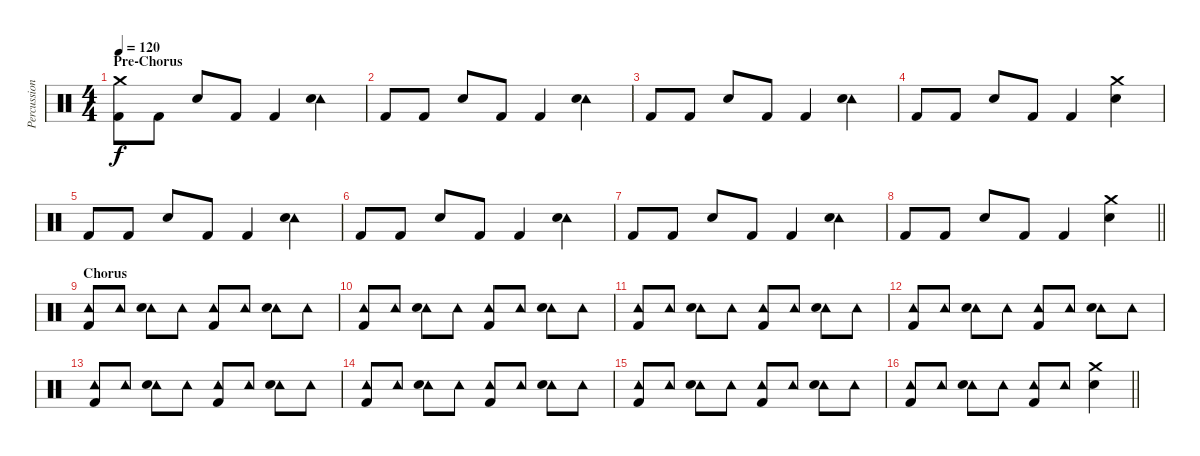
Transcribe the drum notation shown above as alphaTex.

\track ("Percussion" "Percussion") {instrument percussion}
\staff {score}
\articulation defaults
\ts (4 4)
\section ("" "Pre-Chorus")
\tempo 120
\clef neutral
\ks c
("Crash medium (hit)" "Kick (hit) 2").8{dy f} "Kick (hit) 2".8 "Snare (hit) 2".8 "Kick (hit) 2".8 "Kick (hit) 2".4 ("Tambourine (hit)" "Snare (hit) 2").4 |
"Kick (hit) 2".8 "Kick (hit) 2".8 "Snare (hit) 2".8 "Kick (hit) 2".8 "Kick (hit) 2".4 ("Tambourine (hit)" "Snare (hit) 2").4 |
"Kick (hit) 2".8 "Kick (hit) 2".8 "Snare (hit) 2".8 "Kick (hit) 2".8 "Kick (hit) 2".4 ("Tambourine (hit)" "Snare (hit) 2").4 |
"Kick (hit) 2".8 "Kick (hit) 2".8 "Snare (hit) 2".8 "Kick (hit) 2".8 "Kick (hit) 2".4 ("Crash medium (hit)" "Snare (hit) 2").4 |
"Kick (hit) 2".8 "Kick (hit) 2".8 "Snare (hit) 2".8 "Kick (hit) 2".8 "Kick (hit) 2".4 ("Tambourine (hit)" "Snare (hit) 2").4 |
"Kick (hit) 2".8 "Kick (hit) 2".8 "Snare (hit) 2".8 "Kick (hit) 2".8 "Kick (hit) 2".4 ("Tambourine (hit)" "Snare (hit) 2").4 |
"Kick (hit) 2".8 "Kick (hit) 2".8 "Snare (hit) 2".8 "Kick (hit) 2".8 "Kick (hit) 2".4 ("Tambourine (hit)" "Snare (hit) 2").4 |
\barLineRight lightlight "Kick (hit) 2".8 "Kick (hit) 2".8 "Snare (hit) 2".8 "Kick (hit) 2".8 "Kick (hit) 2".4
("Crash medium (hit)" "Snare (hit) 2").4 |
\section ("" "Chorus")
("Tambourine (hit)" "Kick (hit) 2").8 "Tambourine (hit)".8 ("Tambourine (hit)" "Snare (hit) 2").8 "Tambourine (hit)".8 ("Tambourine (hit)" "Kick (hit) 2").8 "Tambourine (hit)".8 ("Tambourine (hit)" "Snare (hit) 2").8 "Tambourine (hit)".8 |
("Tambourine (hit)" "Kick (hit) 2").8 "Tambourine (hit)".8 ("Tambourine (hit)" "Snare (hit) 2").8 "Tambourine (hit)".8 ("Tambourine (hit)" "Kick (hit) 2").8 "Tambourine (hit)".8 ("Tambourine (hit)" "Snare (hit) 2").8 "Tambourine (hit)".8 |
("Tambourine (hit)" "Kick (hit) 2").8 "Tambourine (hit)".8 ("Tambourine (hit)" "Snare (hit) 2").8 "Tambourine (hit)".8 ("Tambourine (hit)" "Kick (hit) 2").8 "Tambourine (hit)".8 ("Tambourine (hit)" "Snare (hit) 2").8 "Tambourine (hit)".8 |
("Tambourine (hit)" "Kick (hit) 2").8 "Tambourine (hit)".8 ("Tambourine (hit)" "Snare (hit) 2").8 "Tambourine (hit)".8 ("Tambourine (hit)" "Kick (hit) 2").8 "Tambourine (hit)".8 ("Tambourine (hit)" "Snare (hit) 2").8 "Tambourine (hit)".8 |
("Tambourine (hit)" "Kick (hit) 2").8 "Tambourine (hit)".8 ("Tambourine (hit)" "Snare (hit) 2").8 "Tambourine (hit)".8 ("Tambourine (hit)" "Kick (hit) 2").8 "Tambourine (hit)".8 ("Tambourine (hit)" "Snare (hit) 2").8 "Tambourine (hit)".8 |
("Tambourine (hit)" "Kick (hit) 2").8 "Tambourine (hit)".8 ("Tambourine (hit)" "Snare (hit) 2").8 "Tambourine (hit)".8 ("Tambourine (hit)" "Kick (hit) 2").8 "Tambourine (hit)".8 ("Tambourine (hit)" "Snare (hit) 2").8 "Tambourine (hit)".8 |
("Tambourine (hit)" "Kick (hit) 2").8 "Tambourine (hit)".8 ("Tambourine (hit)" "Snare (hit) 2").8 "Tambourine (hit)".8 ("Tambourine (hit)" "Kick (hit) 2").8 "Tambourine (hit)".8 ("Tambourine (hit)" "Snare (hit) 2").8 "Tambourine (hit)".8 |
\barLineRight lightlight
("Tambourine (hit)" "Kick (hit) 2").8 "Tambourine (hit)".8 ("Tambourine (hit)" "Snare (hit) 2").8 "Tambourine (hit)".8 ("Tambourine (hit)" "Kick (hit) 2").8 "Tambourine (hit)".8 ("Crash medium (hit)" "Snare (hit) 2").4
